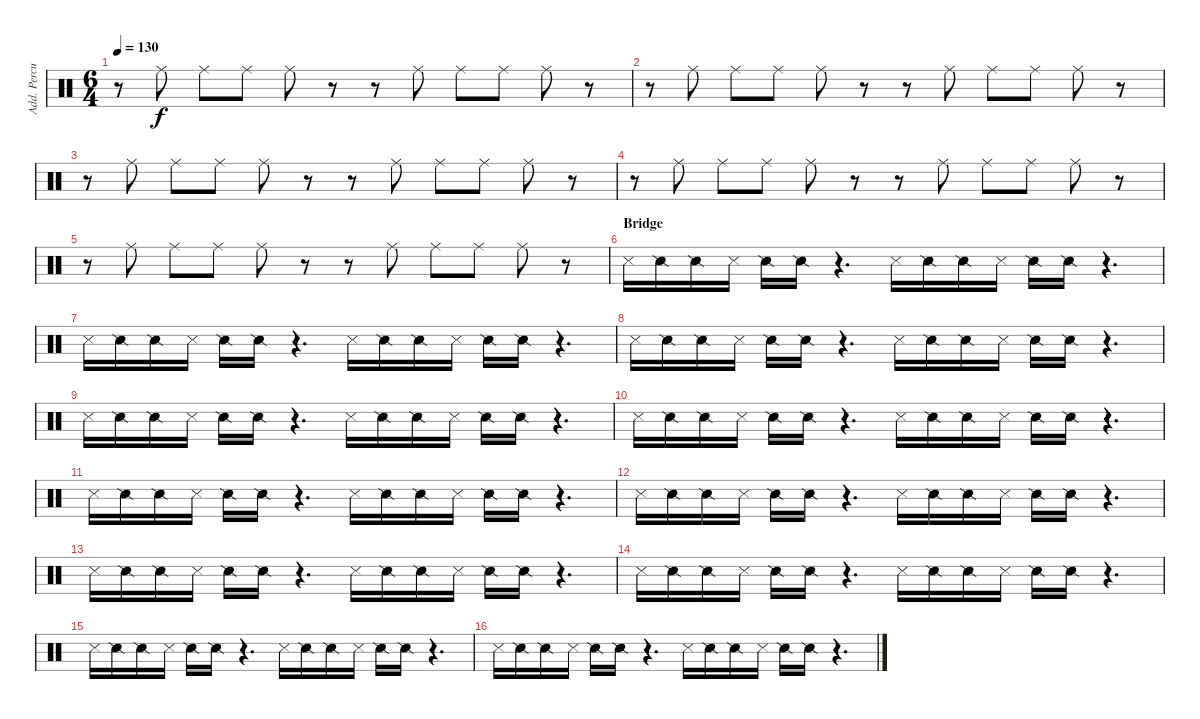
\track ("Add. Percussion" "Add. Percu") {instrument percussion}
\staff {score}
\articulation defaults
\ts (6 4)
\tempo 130
\clef neutral
\ks c
r.8{dy f} "Ride (middle)".8 "Ride (middle)".8 "Ride (middle)".8 "Ride (middle)".8 r.8 r.8 "Ride (middle)".8 "Ride (middle)".8 "Ride (middle)".8 "Ride (middle)".8 r.8 |
r.8 "Ride (middle)".8 "Ride (middle)".8 "Ride (middle)".8 "Ride (middle)".8 r.8 r.8 "Ride (middle)".8 "Ride (middle)".8 "Ride (middle)".8 "Ride (middle)".8 r.8 |
r.8 "Ride (middle)".8 "Ride (middle)".8 "Ride (middle)".8 "Ride (middle)".8 r.8 r.8 "Ride (middle)".8 "Ride (middle)".8 "Ride (middle)".8 "Ride (middle)".8 r.8 |
r.8 "Ride (middle)".8 "Ride (middle)".8 "Ride (middle)".8 "Ride (middle)".8 r.8 r.8 "Ride (middle)".8 "Ride (middle)".8 "Ride (middle)".8 "Ride (middle)".8 r.8 |
r.8 "Ride (middle)".8 "Ride (middle)".8 "Ride (middle)".8 "Ride (middle)".8 r.8 r.8 "Ride (middle)".8 "Ride (middle)".8 "Ride (middle)".8 "Ride (middle)".8 r.8 |
\section ("" "Bridge")
"Metronome (hit)".16 "Snare (side stick) 2".16 "Snare (side stick) 2".16 "Metronome (hit)".16 "Snare (side stick) 2".16 "Snare (side stick) 2".16 r.4{d} "Metronome (hit)".16 "Snare (side stick) 2".16 "Snare (side stick) 2".16 "Metronome (hit)".16 "Snare (side stick) 2".16 "Snare (side stick) 2".16 r.4{d} |
"Metronome (hit)".16 "Snare (side stick) 2".16 "Snare (side stick) 2".16 "Metronome (hit)".16 "Snare (side stick) 2".16 "Snare (side stick) 2".16 r.4{d} "Metronome (hit)".16 "Snare (side stick) 2".16 "Snare (side stick) 2".16 "Metronome (hit)".16 "Snare (side stick) 2".16 "Snare (side stick) 2".16 r.4{d} |
\section ("" "")
"Metronome (hit)".16 "Snare (side stick) 2".16 "Snare (side stick) 2".16 "Metronome (hit)".16 "Snare (side stick) 2".16 "Snare (side stick) 2".16 r.4{d} "Metronome (hit)".16 "Snare (side stick) 2".16 "Snare (side stick) 2".16 "Metronome (hit)".16 "Snare (side stick) 2".16 "Snare (side stick) 2".16 r.4{d} |
"Metronome (hit)".16 "Snare (side stick) 2".16 "Snare (side stick) 2".16 "Metronome (hit)".16 "Snare (side stick) 2".16 "Snare (side stick) 2".16 r.4{d} "Metronome (hit)".16 "Snare (side stick) 2".16 "Snare (side stick) 2".16 "Metronome (hit)".16 "Snare (side stick) 2".16 "Snare (side stick) 2".16 r.4{d} |
"Metronome (hit)".16 "Snare (side stick) 2".16 "Snare (side stick) 2".16 "Metronome (hit)".16 "Snare (side stick) 2".16 "Snare (side stick) 2".16 r.4{d} "Metronome (hit)".16 "Snare (side stick) 2".16 "Snare (side stick) 2".16 "Metronome (hit)".16 "Snare (side stick) 2".16 "Snare (side stick) 2".16 r.4{d} |
"Metronome (hit)".16 "Snare (side stick) 2".16 "Snare (side stick) 2".16 "Metronome (hit)".16 "Snare (side stick) 2".16 "Snare (side stick) 2".16 r.4{d} "Metronome (hit)".16 "Snare (side stick) 2".16 "Snare (side stick) 2".16 "Metronome (hit)".16 "Snare (side stick) 2".16 "Snare (side stick) 2".16 r.4{d} |
"Metronome (hit)".16 "Snare (side stick) 2".16 "Snare (side stick) 2".16 "Metronome (hit)".16 "Snare (side stick) 2".16 "Snare (side stick) 2".16 r.4{d} "Metronome (hit)".16 "Snare (side stick) 2".16 "Snare (side stick) 2".16 "Metronome (hit)".16 "Snare (side stick) 2".16 "Snare (side stick) 2".16 r.4{d} |
"Metronome (hit)".16 "Snare (side stick) 2".16 "Snare (side stick) 2".16 "Metronome (hit)".16 "Snare (side stick) 2".16 "Snare (side stick) 2".16 r.4{d} "Metronome (hit)".16 "Snare (side stick) 2".16 "Snare (side stick) 2".16 "Metronome (hit)".16 "Snare (side stick) 2".16 "Snare (side stick) 2".16 r.4{d} |
"Metronome (hit)".16 "Snare (side stick) 2".16 "Snare (side stick) 2".16 "Metronome (hit)".16 "Snare (side stick) 2".16 "Snare (side stick) 2".16 r.4{d} "Metronome (hit)".16 "Snare (side stick) 2".16 "Snare (side stick) 2".16 "Metronome (hit)".16 "Snare (side stick) 2".16 "Snare (side stick) 2".16 r.4{d} |
"Metronome (hit)".16 "Snare (side stick) 2".16 "Snare (side stick) 2".16 "Metronome (hit)".16 "Snare (side stick) 2".16 "Snare (side stick) 2".16 r.4{d} "Metronome (hit)".16 "Snare (side stick) 2".16 "Snare (side stick) 2".16 "Metronome (hit)".16 "Snare (side stick) 2".16 "Snare (side stick) 2".16 r.4{d} |
"Metronome (hit)".16 "Snare (side stick) 2".16 "Snare (side stick) 2".16 "Metronome (hit)".16 "Snare (side stick) 2".16 "Snare (side stick) 2".16 r.4{d} "Metronome (hit)".16 "Snare (side stick) 2".16 "Snare (side stick) 2".16 "Metronome (hit)".16 "Snare (side stick) 2".16 "Snare (side stick) 2".16 r.4{d}
